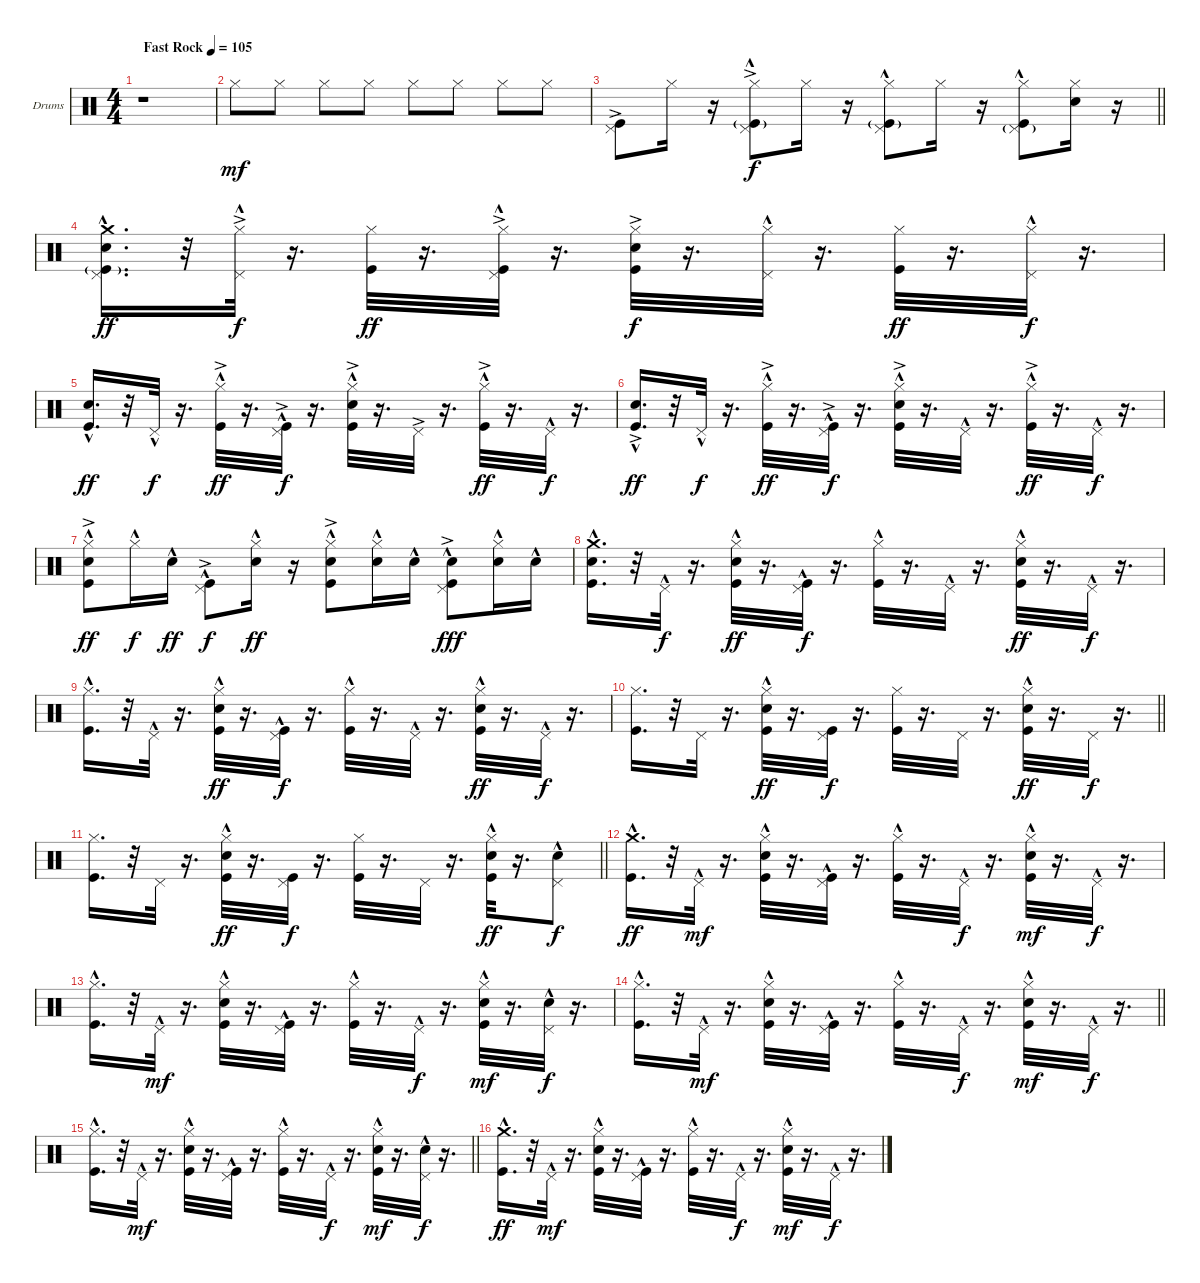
\bracketExtendMode groupsimilarinstruments
\firstSystemTrackNameOrientation horizontal
\otherSystemsTrackNameOrientation horizontal
\track ("Барабаны Г.Гурьянов" "Drums") {instrument percussion}
\staff {score}
\articulation defaults
\ts (4 4)
\beaming (8 2 2 2 2)
\tempo (105 "Fast Rock")
\clef neutral
\ks c
r.1{dy mf} |
"Hi-Hat (closed)".8 "Hi-Hat (closed)".8 "Hi-Hat (closed)".8 "Hi-Hat (closed)".8 "Hi-Hat (closed)".8 "Hi-Hat (closed)".8 "Hi-Hat (closed)".8 "Hi-Hat (closed)".8 |
\barLineRight lightlight
("Pedal Hi-Hat (hit)"{ac} "Kick (hit)").8 "Hi-Hat (closed)".16 r.16 ("Pedal Hi-Hat (hit)"{ac} "Hi-Hat (closed)"{hac} "Kick (hit)"{g}).8{dy f} "Hi-Hat (closed)".16 r.16 ("Pedal Hi-Hat (hit)"{hac} "Hi-Hat (closed)"{hac} "Kick (hit)"{g}).8 "Hi-Hat (closed)".16 r.16 ("Pedal Hi-Hat (hit)"{g} "Hi-Hat (closed)"{hac} "Kick (hit)").8 ("Hi-Hat (closed)" "Snare (hit) 2").16 r.16 |
("Crash medium (hit)"{hac} "Kick (hit)"{g} "Pedal Hi-Hat (hit)"{hac} "Snare (hit) 2").16{d dy ff} r.32 ("Pedal Hi-Hat (hit)"{ac} "Hi-Hat (closed)"{hac}).32{dy f} r.16{d} ("Hi-Hat (closed)" "Kick (hit)").32{dy ff} r.16{d} ("Pedal Hi-Hat (hit)"{ac} "Kick (hit)"{ac} "Hi-Hat (closed)"{hac}).32 r.16{d} ("Hi-Hat (closed)" "Kick (hit)"{ac} "Snare (hit) 2").32{dy f} r.16{d} ("Pedal Hi-Hat (hit)"{hac} "Hi-Hat (closed)"{hac}).32 r.16{d} ("Hi-Hat (closed)" "Kick (hit)").32{dy ff} r.16{d} ("Pedal Hi-Hat (hit)"{hac} "Hi-Hat (closed)"{hac}).32{dy f} r.16{d} |
("Kick (hit)"{hac} "Snare (hit) 2"{hac}).16{d dy ff} r.32 "Pedal Hi-Hat (hit)"{hac}.32{dy f} r.16{d} ("Hi-Hat (closed)"{hac} "Kick (hit)"{ac}).32{dy ff} r.16{d} ("Pedal Hi-Hat (hit)"{hac} "Kick (hit)"{ac}).32{dy f} r.16{d} ("Hi-Hat (closed)"{hac} "Kick (hit)"{ac} "Snare (hit) 2").32 r.16{d} "Pedal Hi-Hat (hit)"{ac}.32 r.16{d} ("Hi-Hat (closed)"{hac} "Kick (hit)"{ac}).32{dy ff} r.16{d} "Pedal Hi-Hat (hit)"{hac}.32{dy f} r.16{d} |
("Kick (hit)"{ac} "Snare (hit) 2"{hac}).16{d dy ff} r.32 "Pedal Hi-Hat (hit)"{hac}.32{dy f} r.16{d} ("Hi-Hat (closed)"{hac} "Kick (hit)"{ac}).32{dy ff} r.16{d} ("Pedal Hi-Hat (hit)"{hac} "Kick (hit)"{ac}).32{dy f} r.16{d} ("Hi-Hat (closed)"{hac} "Kick (hit)"{ac} "Snare (hit) 2").32 r.16{d} "Pedal Hi-Hat (hit)"{hac}.32 r.16{d} ("Hi-Hat (closed)"{hac} "Kick (hit)"{ac}).32{dy ff} r.16{d} "Pedal Hi-Hat (hit)"{hac}.32{dy f} r.16{d} |
("Hi-Hat (closed)"{hac} "Kick (hit)"{ac} "Snare (hit) 2"{hac}).8{dy ff} "Hi-Hat (closed)"{hac}.16{dy f} "Snare (hit) 2"{hac}.16{dy ff} ("Pedal Hi-Hat (hit)"{hac} "Kick (hit)"{ac}).8{dy f} ("Hi-Hat (closed)"{hac} "Snare (hit) 2"{hac}).16{dy ff} r.16 ("Hi-Hat (closed)"{hac} "Kick (hit)"{ac} "Snare (hit) 2"{hac}).8 ("Hi-Hat (closed)"{hac} "Snare (hit) 2"{hac}).16 "Snare (hit) 2"{hac}.16 ("Pedal Hi-Hat (hit)"{hac} "Snare (hit) 2"{hac} "Kick (hit)"{ac}).8{dy fff} ("Hi-Hat (closed)"{hac} "Snare (hit) 2"{hac}).16 "Snare (hit) 2"{hac}.16 |
("Crash medium (hit)"{hac} "Kick (hit)" "Snare (hit) 2"{hac}).16{d} r.32 "Pedal Hi-Hat (hit)"{hac}.32{dy f} r.16{d} ("Hi-Hat (closed)"{hac} "Snare (hit) 2"{hac} "Kick (hit)").32{dy ff} r.16{d} ("Pedal Hi-Hat (hit)"{hac} "Kick (hit)").32{dy f} r.16{d} ("Hi-Hat (closed)"{hac} "Kick (hit)").32 r.16{d} "Pedal Hi-Hat (hit)"{hac}.32 r.16{d} ("Hi-Hat (closed)"{hac} "Snare (hit) 2"{hac} "Kick (hit)").32{dy ff} r.16{d} "Pedal Hi-Hat (hit)"{hac}.32{dy f} r.16{d} |
("Hi-Hat (closed)"{hac} "Kick (hit)").16{d} r.32 "Pedal Hi-Hat (hit)"{hac}.32 r.16{d} ("Hi-Hat (closed)"{hac} "Snare (hit) 2" "Kick (hit)").32{dy ff} r.16{d} ("Pedal Hi-Hat (hit)"{hac} "Kick (hit)").32{dy f} r.16{d} ("Hi-Hat (closed)"{hac} "Kick (hit)").32 r.16{d} "Pedal Hi-Hat (hit)"{hac}.32 r.16{d} ("Hi-Hat (closed)"{hac} "Snare (hit) 2"{hac} "Kick (hit)").32{dy ff} r.16{d} "Pedal Hi-Hat (hit)"{hac}.32{dy f} r.16{d} |
\barLineRight lightlight
("Hi-Hat (closed)" "Kick (hit)").16{d} r.32 "Pedal Hi-Hat (hit)".32 r.16{d} ("Hi-Hat (closed)" "Snare (hit) 2"{hac} "Kick (hit)").32{dy ff} r.16{d} ("Pedal Hi-Hat (hit)" "Kick (hit)").32{dy f} r.16{d} ("Hi-Hat (closed)" "Kick (hit)").32 r.16{d} "Pedal Hi-Hat (hit)".32 r.16{d} ("Hi-Hat (closed)" "Snare (hit) 2"{hac} "Kick (hit)").32{dy ff} r.16{d} "Pedal Hi-Hat (hit)".32{dy f} r.16{d} |
\barLineRight lightlight
("Hi-Hat (closed)" "Kick (hit)").16{d} r.32 "Pedal Hi-Hat (hit)".32 r.16{d} ("Hi-Hat (closed)" "Snare (hit) 2"{hac} "Kick (hit)").32{dy ff} r.16{d} ("Pedal Hi-Hat (hit)" "Kick (hit)").32{dy f} r.16{d} ("Hi-Hat (closed)" "Kick (hit)").32 r.16{d} "Pedal Hi-Hat (hit)".32 r.16{d} ("Hi-Hat (closed)" "Snare (hit) 2"{hac} "Kick (hit)").32{dy ff} r.16{d} ("Pedal Hi-Hat (hit)" "Snare (hit) 2"{hac}).8{dy f} |
("Crash medium (hit)"{hac} "Kick (hit)"{hac}).16{d dy ff} r.32 "Pedal Hi-Hat (hit)"{hac}.32{dy mf} r.16{d} ("Hi-Hat (closed)"{hac} "Snare (hit) 2"{hac} "Kick (hit)"{hac}).32 r.16{d} ("Pedal Hi-Hat (hit)"{hac} "Kick (hit)"{hac}).32 r.16{d} ("Hi-Hat (closed)"{hac} "Kick (hit)"{hac}).32 r.16{d} "Pedal Hi-Hat (hit)"{hac}.32{dy f} r.16{d} ("Hi-Hat (closed)"{hac} "Snare (hit) 2"{hac} "Kick (hit)"{hac}).32{dy mf} r.16{d} "Pedal Hi-Hat (hit)"{hac}.32{dy f} r.16{d} |
("Hi-Hat (closed)"{hac} "Kick (hit)"{hac}).16{d} r.32 "Pedal Hi-Hat (hit)"{hac}.32{dy mf} r.16{d} ("Hi-Hat (closed)"{hac} "Snare (hit) 2"{hac} "Kick (hit)"{hac}).32 r.16{d} ("Pedal Hi-Hat (hit)"{hac} "Kick (hit)"{hac}).32 r.16{d} ("Hi-Hat (closed)"{hac} "Kick (hit)"{hac}).32 r.16{d} "Pedal Hi-Hat (hit)"{hac}.32{dy f} r.16{d} ("Hi-Hat (closed)"{hac} "Snare (hit) 2"{hac} "Kick (hit)"{hac}).32{dy mf} r.16{d} ("Pedal Hi-Hat (hit)"{hac} "Snare (hit) 2"{hac}).32{dy f} r.16{d} |
\barLineRight lightlight
("Hi-Hat (closed)"{hac} "Kick (hit)"{hac}).16{d} r.32 "Pedal Hi-Hat (hit)"{hac}.32{dy mf} r.16{d} ("Hi-Hat (closed)"{hac} "Snare (hit) 2"{hac} "Kick (hit)"{hac}).32 r.16{d} ("Pedal Hi-Hat (hit)"{hac} "Kick (hit)"{hac}).32 r.16{d} ("Hi-Hat (closed)"{hac} "Kick (hit)"{hac}).32 r.16{d} "Pedal Hi-Hat (hit)"{hac}.32{dy f} r.16{d} ("Hi-Hat (closed)"{hac} "Snare (hit) 2"{hac} "Kick (hit)"{hac}).32{dy mf} r.16{d} "Pedal Hi-Hat (hit)"{hac}.32{dy f} r.16{d} |
\barLineRight lightlight
("Hi-Hat (closed)"{hac} "Kick (hit)"{hac}).16{d} r.32 "Pedal Hi-Hat (hit)"{hac}.32{dy mf} r.16{d} ("Hi-Hat (closed)"{hac} "Snare (hit) 2"{hac} "Kick (hit)"{hac}).32 r.16{d} ("Pedal Hi-Hat (hit)"{hac} "Kick (hit)"{hac}).32 r.16{d} ("Hi-Hat (closed)"{hac} "Kick (hit)"{hac}).32 r.16{d} "Pedal Hi-Hat (hit)"{hac}.32{dy f} r.16{d} ("Hi-Hat (closed)"{hac} "Snare (hit) 2"{hac} "Kick (hit)"{hac}).32{dy mf} r.16{d} ("Pedal Hi-Hat (hit)"{hac} "Snare (hit) 2"{hac}).32{dy f} r.16{d} |
("Crash medium (hit)"{hac} "Kick (hit)"{hac}).16{d dy ff} r.32 "Pedal Hi-Hat (hit)"{hac}.32{dy mf} r.16{d} ("Hi-Hat (closed)"{hac} "Snare (hit) 2"{hac} "Kick (hit)"{hac}).32 r.16{d} ("Pedal Hi-Hat (hit)"{hac} "Kick (hit)"{hac}).32 r.16{d} ("Hi-Hat (closed)"{hac} "Kick (hit)"{hac}).32 r.16{d} "Pedal Hi-Hat (hit)"{hac}.32{dy f} r.16{d} ("Hi-Hat (closed)"{hac} "Snare (hit) 2"{hac} "Kick (hit)"{hac}).32{dy mf} r.16{d} "Pedal Hi-Hat (hit)"{hac}.32{dy f} r.16{d}
